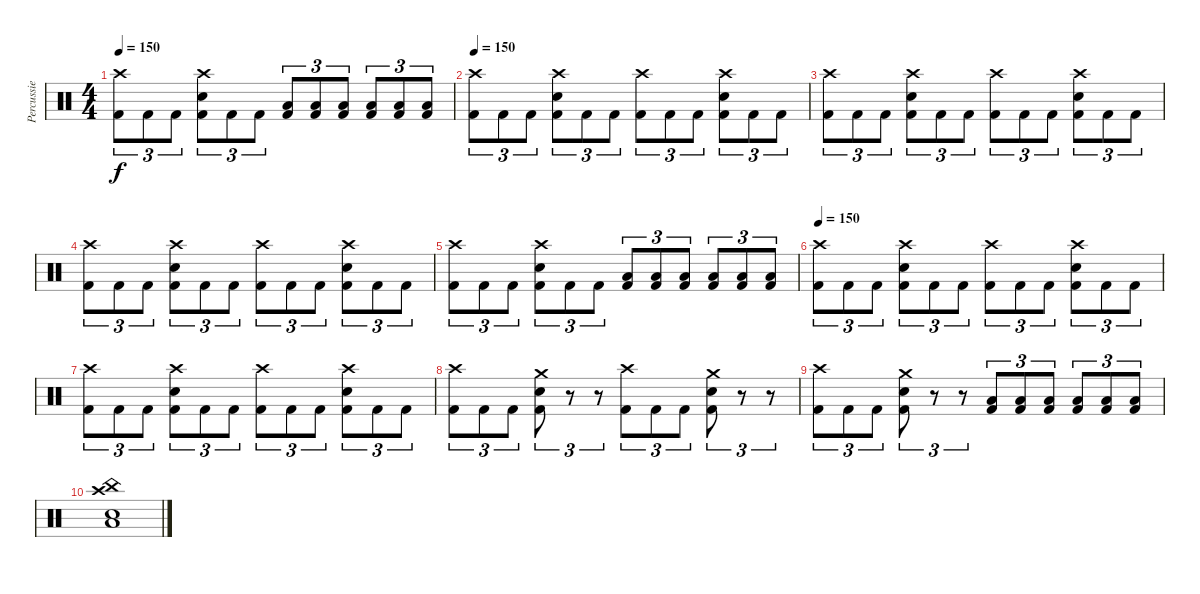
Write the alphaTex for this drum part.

\track ("Percussie" "Percussie") {instrument percussion}
\staff {score}
\articulation defaults
\ts (4 4)
\tempo 150
\clef neutral
\ks c
("Crash high (hit)" "Kick (hit) 2").8{tu (3 2) dy f} "Kick (hit) 2".8{tu (3 2)} "Kick (hit) 2".8{tu (3 2)} ("Crash high (hit)" "Snare (hit) 2" "Kick (hit) 2").8{tu (3 2)} "Kick (hit) 2".8{tu (3 2)} "Kick (hit) 2".8{tu (3 2)} ("Low Tom (hit)" "Kick (hit) 2").8{tu (3 2)} ("Low Floor Tom (hit)" "Kick (hit) 2").8{tu (3 2)} ("Low Floor Tom (hit)" "Kick (hit) 2").8{tu (3 2)} ("Low Tom (hit)" "Kick (hit) 2").8{tu (3 2)} ("Low Floor Tom (hit)" "Kick (hit) 2").8{tu (3 2)} ("Low Floor Tom (hit)" "Kick (hit) 2").8{tu (3 2)} |
\tempo 150
("Crash high (hit)" "Kick (hit) 2").8{tu (3 2)} "Kick (hit) 2".8{tu (3 2)} "Kick (hit) 2".8{tu (3 2)} ("Crash high (hit)" "Snare (hit) 2" "Kick (hit) 2").8{tu (3 2)} "Kick (hit) 2".8{tu (3 2)} "Kick (hit) 2".8{tu (3 2)} ("Crash high (hit)" "Kick (hit) 2").8{tu (3 2)} "Kick (hit) 2".8{tu (3 2)} "Kick (hit) 2".8{tu (3 2)} ("Crash high (hit)" "Snare (hit) 2" "Kick (hit) 2").8{tu (3 2)} "Kick (hit) 2".8{tu (3 2)} "Kick (hit) 2".8{tu (3 2)} |
("Crash high (hit)" "Kick (hit) 2").8{tu (3 2)} "Kick (hit) 2".8{tu (3 2)} "Kick (hit) 2".8{tu (3 2)} ("Crash high (hit)" "Snare (hit) 2" "Kick (hit) 2").8{tu (3 2)} "Kick (hit) 2".8{tu (3 2)} "Kick (hit) 2".8{tu (3 2)} ("Crash high (hit)" "Kick (hit) 2").8{tu (3 2)} "Kick (hit) 2".8{tu (3 2)} "Kick (hit) 2".8{tu (3 2)} ("Crash high (hit)" "Snare (hit) 2" "Kick (hit) 2").8{tu (3 2)} "Kick (hit) 2".8{tu (3 2)} "Kick (hit) 2".8{tu (3 2)} |
("Crash high (hit)" "Kick (hit) 2").8{tu (3 2)} "Kick (hit) 2".8{tu (3 2)} "Kick (hit) 2".8{tu (3 2)} ("Crash high (hit)" "Snare (hit) 2" "Kick (hit) 2").8{tu (3 2)} "Kick (hit) 2".8{tu (3 2)} "Kick (hit) 2".8{tu (3 2)} ("Crash high (hit)" "Kick (hit) 2").8{tu (3 2)} "Kick (hit) 2".8{tu (3 2)} "Kick (hit) 2".8{tu (3 2)} ("Crash high (hit)" "Snare (hit) 2" "Kick (hit) 2").8{tu (3 2)} "Kick (hit) 2".8{tu (3 2)} "Kick (hit) 2".8{tu (3 2)} |
("Crash high (hit)" "Kick (hit) 2").8{tu (3 2)} "Kick (hit) 2".8{tu (3 2)} "Kick (hit) 2".8{tu (3 2)} ("Crash high (hit)" "Snare (hit) 2" "Kick (hit) 2").8{tu (3 2)} "Kick (hit) 2".8{tu (3 2)} "Kick (hit) 2".8{tu (3 2)} ("Low Tom (hit)" "Kick (hit) 2").8{tu (3 2)} ("Low Floor Tom (hit)" "Kick (hit) 2").8{tu (3 2)} ("Low Floor Tom (hit)" "Kick (hit) 2").8{tu (3 2)} ("Low Tom (hit)" "Kick (hit) 2").8{tu (3 2)} ("Low Floor Tom (hit)" "Kick (hit) 2").8{tu (3 2)} ("Low Floor Tom (hit)" "Kick (hit) 2").8{tu (3 2)} |
\tempo 150
("Crash high (hit)" "Kick (hit) 2").8{tu (3 2)} "Kick (hit) 2".8{tu (3 2)} "Kick (hit) 2".8{tu (3 2)} ("Crash high (hit)" "Snare (hit) 2" "Kick (hit) 2").8{tu (3 2)} "Kick (hit) 2".8{tu (3 2)} "Kick (hit) 2".8{tu (3 2)} ("Crash high (hit)" "Kick (hit) 2").8{tu (3 2)} "Kick (hit) 2".8{tu (3 2)} "Kick (hit) 2".8{tu (3 2)} ("Crash high (hit)" "Snare (hit) 2" "Kick (hit) 2").8{tu (3 2)} "Kick (hit) 2".8{tu (3 2)} "Kick (hit) 2".8{tu (3 2)} |
("Crash high (hit)" "Kick (hit) 2").8{tu (3 2)} "Kick (hit) 2".8{tu (3 2)} "Kick (hit) 2".8{tu (3 2)} ("Crash high (hit)" "Snare (hit) 2" "Kick (hit) 2").8{tu (3 2)} "Kick (hit) 2".8{tu (3 2)} "Kick (hit) 2".8{tu (3 2)} ("Crash high (hit)" "Kick (hit) 2").8{tu (3 2)} "Kick (hit) 2".8{tu (3 2)} "Kick (hit) 2".8{tu (3 2)} ("Crash high (hit)" "Snare (hit) 2" "Kick (hit) 2").8{tu (3 2)} "Kick (hit) 2".8{tu (3 2)} "Kick (hit) 2".8{tu (3 2)} |
("Crash high (hit)" "Kick (hit) 2").8{tu (3 2)} "Kick (hit) 2".8{tu (3 2)} "Kick (hit) 2".8{tu (3 2)} ("Crash medium (hit)" "Snare (hit) 2" "Kick (hit) 2").8{tu (3 2)} r.8{tu (3 2)} r.8{tu (3 2)} ("Crash high (hit)" "Kick (hit) 2").8{tu (3 2)} "Kick (hit) 2".8{tu (3 2)} "Kick (hit) 2".8{tu (3 2)} ("Crash medium (hit)" "Snare (hit) 2" "Kick (hit) 2").8{tu (3 2)} r.8{tu (3 2)} r.8{tu (3 2)} |
("Crash high (hit)" "Kick (hit) 2").8{tu (3 2)} "Kick (hit) 2".8{tu (3 2)} "Kick (hit) 2".8{tu (3 2)} ("Crash medium (hit)" "Snare (hit) 2" "Kick (hit) 2").8{tu (3 2)} r.8{tu (3 2)} r.8{tu (3 2)} ("Low Tom (hit)" "Kick (hit) 2").8{tu (3 2)} ("Low Floor Tom (hit)" "Kick (hit) 2").8{tu (3 2)} ("Low Floor Tom (hit)" "Kick (hit) 2").8{tu (3 2)} ("Low Tom (hit)" "Kick (hit) 2").8{tu (3 2)} ("Low Floor Tom (hit)" "Kick (hit) 2").8{tu (3 2)} ("Low Floor Tom (hit)" "Kick (hit) 2").8{tu (3 2)} |
("Low Floor Tom (hit)" "Snare (hit) 2" "China (hit)" "Crash high (hit)").1
